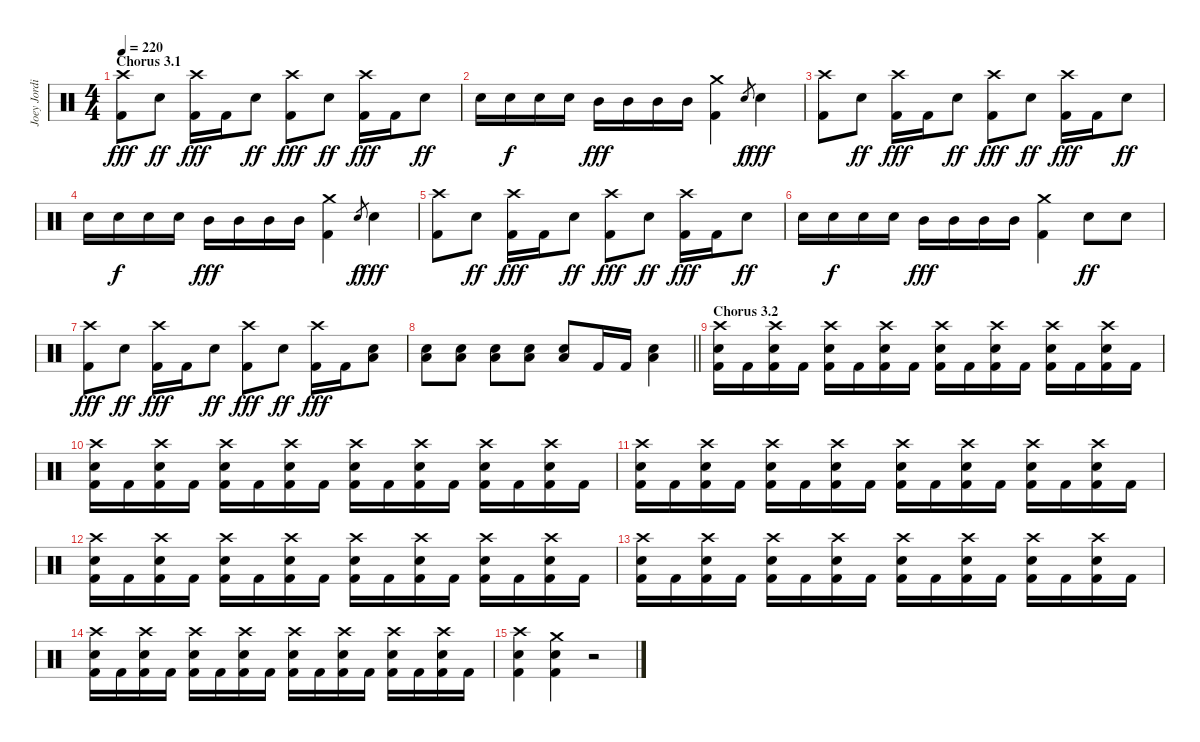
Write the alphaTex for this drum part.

\track ("Joey Jordison" "Joey Jordi") {instrument percussion}
\staff {score}
\articulation defaults
\ts (4 4)
\section ("" "Chorus 3.1")
\tempo 220
\clef neutral
\ks c
("Crash high (hit)" "Kick (hit) 2").8{dy fff} "Electric Snare (hit)".8{dy ff} ("Crash high (hit)" "Kick (hit) 2").16{dy fff} "Kick (hit) 2".16 "Electric Snare (hit)".8{dy ff} ("Crash high (hit)" "Kick (hit) 2").8{dy fff} "Electric Snare (hit)".8{dy ff} ("Crash high (hit)" "Kick (hit) 2").16{dy fff} "Kick (hit) 2".16 "Electric Snare (hit)".8{dy ff} |
"Electric Snare (hit)".16 "Electric Snare (hit)".16{dy f} "Electric Snare (hit)".16 "Electric Snare (hit)".16 "Mid Tom (hit)".16{dy fff} "Mid Tom (hit)".16 "Mid Tom (hit)".16 "Mid Tom (hit)".16 ("Crash medium (hit)" "Kick (hit) 2").4 "Electric Snare (hit)".8{gr dy f} "Electric Snare (hit)".4{dy fff} |
("Crash high (hit)" "Kick (hit) 2").8 "Electric Snare (hit)".8{dy ff} ("Crash high (hit)" "Kick (hit) 2").16{dy fff} "Kick (hit) 2".16 "Electric Snare (hit)".8{dy ff} ("Crash high (hit)" "Kick (hit) 2").8{dy fff} "Electric Snare (hit)".8{dy ff} ("Crash high (hit)" "Kick (hit) 2").16{dy fff} "Kick (hit) 2".16 "Electric Snare (hit)".8{dy ff} |
"Electric Snare (hit)".16 "Electric Snare (hit)".16{dy f} "Electric Snare (hit)".16 "Electric Snare (hit)".16 "Mid Tom (hit)".16{dy fff} "Mid Tom (hit)".16 "Mid Tom (hit)".16 "Mid Tom (hit)".16 ("Crash medium (hit)" "Kick (hit) 2").4 "Electric Snare (hit)".8{gr dy f} "Electric Snare (hit)".4{dy fff} |
("Crash high (hit)" "Kick (hit) 2").8 "Electric Snare (hit)".8{dy ff} ("Crash high (hit)" "Kick (hit) 2").16{dy fff} "Kick (hit) 2".16 "Electric Snare (hit)".8{dy ff} ("Crash high (hit)" "Kick (hit) 2").8{dy fff} "Electric Snare (hit)".8{dy ff} ("Crash high (hit)" "Kick (hit) 2").16{dy fff} "Kick (hit) 2".16 "Electric Snare (hit)".8{dy ff} |
"Electric Snare (hit)".16 "Electric Snare (hit)".16{dy f} "Electric Snare (hit)".16 "Electric Snare (hit)".16 "Mid Tom (hit)".16{dy fff} "Mid Tom (hit)".16 "Mid Tom (hit)".16 "Mid Tom (hit)".16 ("Crash medium (hit)" "Kick (hit) 2").4 "Electric Snare (hit)".8{dy ff} "Electric Snare (hit)".8 |
("Crash high (hit)" "Kick (hit) 2").8{dy fff} "Electric Snare (hit)".8{dy ff} ("Crash high (hit)" "Kick (hit) 2").16{dy fff} "Kick (hit) 2".16 "Electric Snare (hit)".8{dy ff} ("Crash high (hit)" "Kick (hit) 2").8{dy fff} "Electric Snare (hit)".8{dy ff} ("Crash high (hit)" "Kick (hit) 2").16{dy fff} "Kick (hit) 2".16 ("Electric Snare (hit)" "Low Floor Tom (hit)").8 |
\barLineRight lightlight
("Electric Snare (hit)" "Low Floor Tom (hit)").8 ("Electric Snare (hit)" "Low Floor Tom (hit)").8 ("Electric Snare (hit)" "Low Floor Tom (hit)").8 ("Electric Snare (hit)" "Low Floor Tom (hit)").8 ("Electric Snare (hit)" "Low Floor Tom (hit)").8 "Kick (hit) 2".16 "Kick (hit) 2".16 ("Electric Snare (hit)" "Low Floor Tom (hit)").4 |
\section ("" "Chorus 3.2")
("Crash high (hit)" "Electric Snare (hit)" "Kick (hit) 2").16 "Kick (hit) 2".16 ("Crash high (hit)" "Electric Snare (hit)" "Kick (hit) 2").16 "Kick (hit) 2".16 ("Crash high (hit)" "Electric Snare (hit)" "Kick (hit) 2").16 "Kick (hit) 2".16 ("Crash high (hit)" "Electric Snare (hit)" "Kick (hit) 2").16 "Kick (hit) 2".16 ("Crash high (hit)" "Electric Snare (hit)" "Kick (hit) 2").16 "Kick (hit) 2".16 ("Crash high (hit)" "Electric Snare (hit)" "Kick (hit) 2").16 "Kick (hit) 2".16 ("Crash high (hit)" "Electric Snare (hit)" "Kick (hit) 2").16 "Kick (hit) 2".16 ("Crash high (hit)" "Electric Snare (hit)" "Kick (hit) 2").16 "Kick (hit) 2".16 |
("Crash high (hit)" "Electric Snare (hit)" "Kick (hit) 2").16 "Kick (hit) 2".16 ("Crash high (hit)" "Electric Snare (hit)" "Kick (hit) 2").16 "Kick (hit) 2".16 ("Crash high (hit)" "Electric Snare (hit)" "Kick (hit) 2").16 "Kick (hit) 2".16 ("Crash high (hit)" "Electric Snare (hit)" "Kick (hit) 2").16 "Kick (hit) 2".16 ("Crash high (hit)" "Electric Snare (hit)" "Kick (hit) 2").16 "Kick (hit) 2".16 ("Crash high (hit)" "Electric Snare (hit)" "Kick (hit) 2").16 "Kick (hit) 2".16 ("Crash high (hit)" "Electric Snare (hit)" "Kick (hit) 2").16 "Kick (hit) 2".16 ("Crash high (hit)" "Electric Snare (hit)" "Kick (hit) 2").16 "Kick (hit) 2".16 |
("Crash high (hit)" "Electric Snare (hit)" "Kick (hit) 2").16 "Kick (hit) 2".16 ("Crash high (hit)" "Electric Snare (hit)" "Kick (hit) 2").16 "Kick (hit) 2".16 ("Crash high (hit)" "Electric Snare (hit)" "Kick (hit) 2").16 "Kick (hit) 2".16 ("Crash high (hit)" "Electric Snare (hit)" "Kick (hit) 2").16 "Kick (hit) 2".16 ("Crash high (hit)" "Electric Snare (hit)" "Kick (hit) 2").16 "Kick (hit) 2".16 ("Crash high (hit)" "Electric Snare (hit)" "Kick (hit) 2").16 "Kick (hit) 2".16 ("Crash high (hit)" "Electric Snare (hit)" "Kick (hit) 2").16 "Kick (hit) 2".16 ("Crash high (hit)" "Electric Snare (hit)" "Kick (hit) 2").16 "Kick (hit) 2".16 |
("Crash high (hit)" "Electric Snare (hit)" "Kick (hit) 2").16 "Kick (hit) 2".16 ("Crash high (hit)" "Electric Snare (hit)" "Kick (hit) 2").16 "Kick (hit) 2".16 ("Crash high (hit)" "Electric Snare (hit)" "Kick (hit) 2").16 "Kick (hit) 2".16 ("Crash high (hit)" "Electric Snare (hit)" "Kick (hit) 2").16 "Kick (hit) 2".16 ("Crash high (hit)" "Electric Snare (hit)" "Kick (hit) 2").16 "Kick (hit) 2".16 ("Crash high (hit)" "Electric Snare (hit)" "Kick (hit) 2").16 "Kick (hit) 2".16 ("Crash high (hit)" "Electric Snare (hit)" "Kick (hit) 2").16 "Kick (hit) 2".16 ("Crash high (hit)" "Electric Snare (hit)" "Kick (hit) 2").16 "Kick (hit) 2".16 |
("Crash high (hit)" "Electric Snare (hit)" "Kick (hit) 2").16 "Kick (hit) 2".16 ("Crash high (hit)" "Electric Snare (hit)" "Kick (hit) 2").16 "Kick (hit) 2".16 ("Crash high (hit)" "Electric Snare (hit)" "Kick (hit) 2").16 "Kick (hit) 2".16 ("Crash high (hit)" "Electric Snare (hit)" "Kick (hit) 2").16 "Kick (hit) 2".16 ("Crash high (hit)" "Electric Snare (hit)" "Kick (hit) 2").16 "Kick (hit) 2".16 ("Crash high (hit)" "Electric Snare (hit)" "Kick (hit) 2").16 "Kick (hit) 2".16 ("Crash high (hit)" "Electric Snare (hit)" "Kick (hit) 2").16 "Kick (hit) 2".16 ("Crash high (hit)" "Electric Snare (hit)" "Kick (hit) 2").16 "Kick (hit) 2".16 |
("Crash high (hit)" "Electric Snare (hit)" "Kick (hit) 2").16 "Kick (hit) 2".16 ("Crash high (hit)" "Electric Snare (hit)" "Kick (hit) 2").16 "Kick (hit) 2".16 ("Crash high (hit)" "Electric Snare (hit)" "Kick (hit) 2").16 "Kick (hit) 2".16 ("Crash high (hit)" "Electric Snare (hit)" "Kick (hit) 2").16 "Kick (hit) 2".16 ("Crash high (hit)" "Electric Snare (hit)" "Kick (hit) 2").16 "Kick (hit) 2".16 ("Crash high (hit)" "Electric Snare (hit)" "Kick (hit) 2").16 "Kick (hit) 2".16 ("Crash high (hit)" "Electric Snare (hit)" "Kick (hit) 2").16 "Kick (hit) 2".16 ("Crash high (hit)" "Electric Snare (hit)" "Kick (hit) 2").16 "Kick (hit) 2".16 |
("Crash high (hit)" "Electric Snare (hit)" "Kick (hit) 2").4 ("Crash medium (hit)" "Electric Snare (hit)" "Kick (hit) 2").4 r.2
